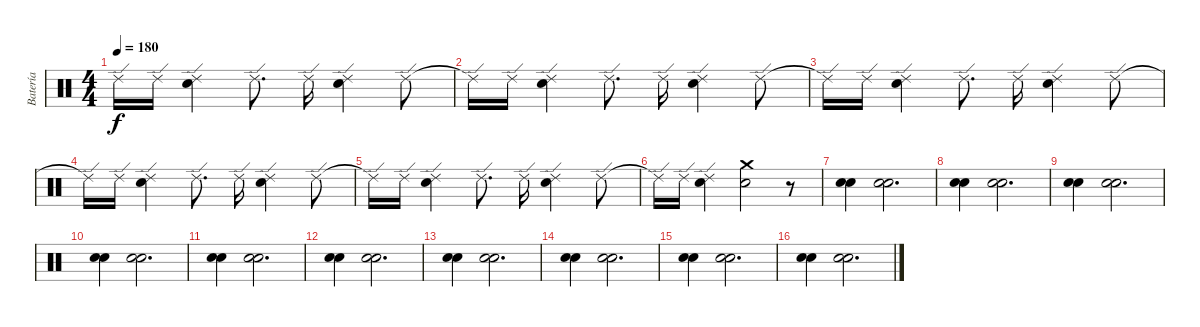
\track ("Batería" "Batería") {instrument percussion}
\staff {score}
\articulation defaults
\ts (4 4)
\tempo 180
\clef neutral
\ks c "Ride (edge) 2"{t}.16{dy f} "Ride (edge) 2".16
("Ride (edge) 2" "Snare (hit) 2").4 "Ride (edge) 2".8{d} "Ride (edge) 2".16 ("Ride (edge) 2" "Snare (hit) 2").4 "Ride (edge) 2".8 |
"Ride (edge) 2"{t}.16 "Ride (edge) 2".16 ("Ride (edge) 2" "Snare (hit) 2").4 "Ride (edge) 2".8{d} "Ride (edge) 2".16 ("Ride (edge) 2" "Snare (hit) 2").4 "Ride (edge) 2".8 |
"Ride (edge) 2"{t}.16 "Ride (edge) 2".16 ("Ride (edge) 2" "Snare (hit) 2").4 "Ride (edge) 2".8{d} "Ride (edge) 2".16 ("Ride (edge) 2" "Snare (hit) 2").4 "Ride (edge) 2".8 |
"Ride (edge) 2"{t}.16 "Ride (edge) 2".16 ("Ride (edge) 2" "Snare (hit) 2").4 "Ride (edge) 2".8{d} "Ride (edge) 2".16 ("Ride (edge) 2" "Snare (hit) 2").4 "Ride (edge) 2".8 |
"Ride (edge) 2"{t}.16 "Ride (edge) 2".16 ("Ride (edge) 2" "Snare (hit) 2").4 "Ride (edge) 2".8{d} "Ride (edge) 2".16 ("Ride (edge) 2" "Snare (hit) 2").4 "Ride (edge) 2".8 |
"Ride (edge) 2"{t}.16 "Ride (edge) 2".16 ("Ride (edge) 2" "Snare (hit) 2").4 ("Crash medium (hit)" "Snare (hit) 2").2 r.8 |
("Snare (hit) 2" "Snare (hit) 2").4 ("Snare (hit) 2" "Snare (hit) 2").2{d} |
("Snare (hit) 2" "Snare (hit) 2").4 ("Snare (hit) 2" "Snare (hit) 2").2{d} |
("Snare (hit) 2" "Snare (hit) 2").4 ("Snare (hit) 2" "Snare (hit) 2").2{d} |
("Snare (hit) 2" "Snare (hit) 2").4 ("Snare (hit) 2" "Snare (hit) 2").2{d} |
("Snare (hit) 2" "Snare (hit) 2").4 ("Snare (hit) 2" "Snare (hit) 2").2{d} |
("Snare (hit) 2" "Snare (hit) 2").4 ("Snare (hit) 2" "Snare (hit) 2").2{d} |
("Snare (hit) 2" "Snare (hit) 2").4 ("Snare (hit) 2" "Snare (hit) 2").2{d} |
("Snare (hit) 2" "Snare (hit) 2").4 ("Snare (hit) 2" "Snare (hit) 2").2{d} |
("Snare (hit) 2" "Snare (hit) 2").4 ("Snare (hit) 2" "Snare (hit) 2").2{d} |
("Snare (hit) 2" "Snare (hit) 2").4 ("Snare (hit) 2" "Snare (hit) 2").2{d}
